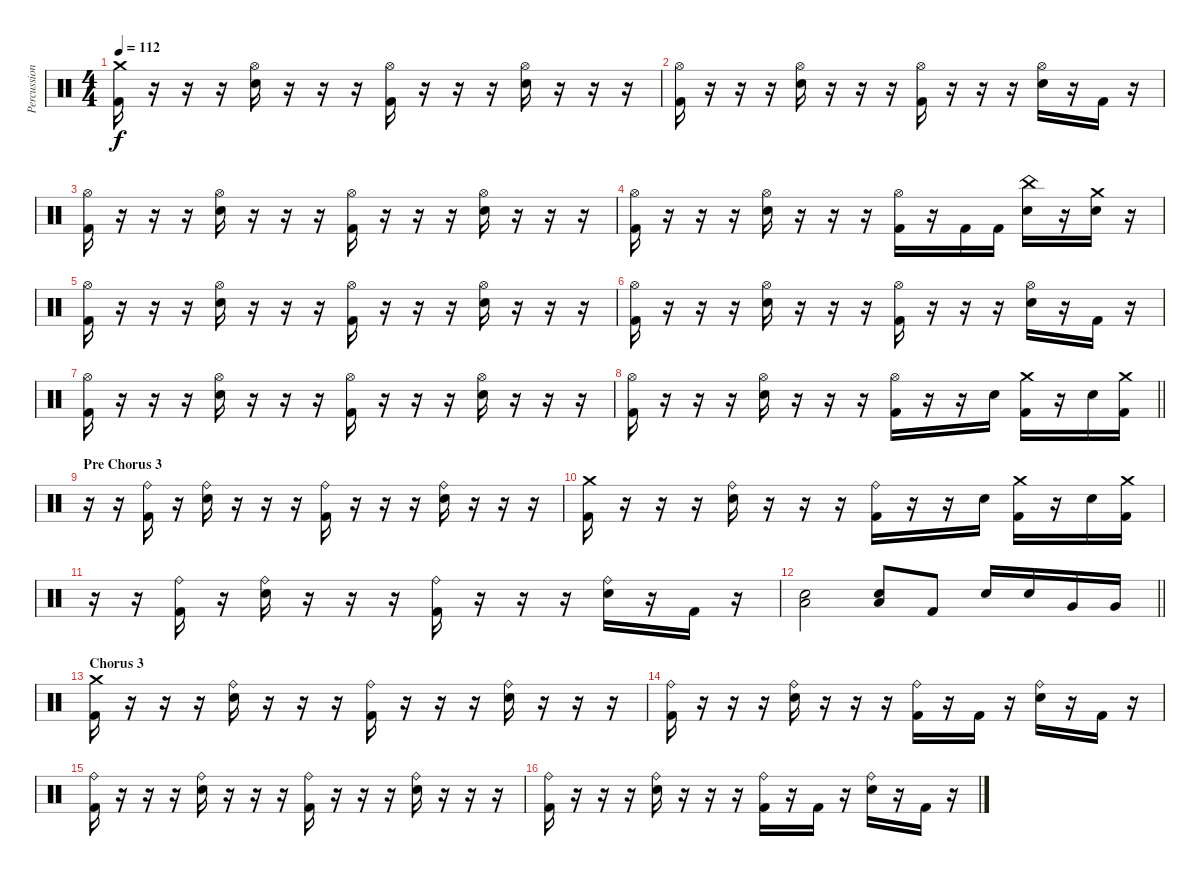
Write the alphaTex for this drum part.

\track ("Percussioni" "Percussion") {instrument percussion}
\staff {score}
\articulation defaults
\ts (4 4)
\tempo 112
\clef neutral
\ks c
("Kick (hit) 2" "Crash medium (hit)").16{dy f} r.16 r.16 r.16 ("Snare (hit) 2" "Hi-Hat (open)").16 r.16 r.16 r.16 ("Kick (hit) 2" "Hi-Hat (open)").16 r.16 r.16 r.16 ("Snare (hit) 2" "Hi-Hat (open)").16 r.16 r.16 r.16 |
("Kick (hit) 2" "Hi-Hat (open)").16 r.16 r.16 r.16 ("Snare (hit) 2" "Hi-Hat (open)").16 r.16 r.16 r.16 ("Kick (hit) 2" "Hi-Hat (open)").16 r.16 r.16 r.16 ("Snare (hit) 2" "Hi-Hat (open)").16 r.16 "Kick (hit) 2".16 r.16 |
("Kick (hit) 2" "Hi-Hat (open)").16 r.16 r.16 r.16 ("Snare (hit) 2" "Hi-Hat (open)").16 r.16 r.16 r.16 ("Kick (hit) 2" "Hi-Hat (open)").16 r.16 r.16 r.16 ("Snare (hit) 2" "Hi-Hat (open)").16 r.16 r.16 r.16 |
("Kick (hit) 2" "Hi-Hat (open)").16 r.16 r.16 r.16 ("Snare (hit) 2" "Hi-Hat (open)").16 r.16 r.16 r.16 ("Kick (hit) 2" "Hi-Hat (open)").16 r.16 "Kick (hit) 2".16 "Kick (hit) 2".16 ("Snare (hit) 2" "China (hit)").16 r.16 ("Snare (hit) 2" "Crash medium (hit)").16 r.16 |
("Kick (hit) 2" "Hi-Hat (open)").16 r.16 r.16 r.16 ("Snare (hit) 2" "Hi-Hat (open)").16 r.16 r.16 r.16 ("Kick (hit) 2" "Hi-Hat (open)").16 r.16 r.16 r.16 ("Snare (hit) 2" "Hi-Hat (open)").16 r.16 r.16 r.16 |
("Kick (hit) 2" "Hi-Hat (open)").16 r.16 r.16 r.16 ("Snare (hit) 2" "Hi-Hat (open)").16 r.16 r.16 r.16 ("Kick (hit) 2" "Hi-Hat (open)").16 r.16 r.16 r.16 ("Snare (hit) 2" "Hi-Hat (open)").16 r.16 "Kick (hit) 2".16 r.16 |
("Kick (hit) 2" "Hi-Hat (open)").16 r.16 r.16 r.16 ("Snare (hit) 2" "Hi-Hat (open)").16 r.16 r.16 r.16 ("Kick (hit) 2" "Hi-Hat (open)").16 r.16 r.16 r.16 ("Snare (hit) 2" "Hi-Hat (open)").16 r.16 r.16 r.16 |
\barLineRight lightlight
("Kick (hit) 2" "Hi-Hat (open)").16 r.16 r.16 r.16 ("Snare (hit) 2" "Hi-Hat (open)").16 r.16 r.16 r.16 ("Kick (hit) 2" "Hi-Hat (open)").16 r.16 r.16 "Snare (hit) 2".16 ("Kick (hit) 2" "Crash medium (hit)").16 r.16 "Snare (hit) 2".16 ("Kick (hit) 2" "Crash medium (hit)").16 |
\section ("" "Pre Chorus 3")
r.16 r.16 ("Kick (hit) 2" "Ride (bell)").16 r.16 ("Snare (hit) 2" "Ride (bell)").16 r.16 r.16 r.16 ("Kick (hit) 2" "Ride (bell)").16 r.16 r.16 r.16 ("Snare (hit) 2" "Ride (bell)").16 r.16 r.16 r.16 |
("Kick (hit) 2" "Crash medium (hit)").16 r.16 r.16 r.16 ("Snare (hit) 2" "Ride (bell)").16 r.16 r.16 r.16 ("Kick (hit) 2" "Ride (bell)").16 r.16 r.16 "Snare (hit) 2".16 ("Kick (hit) 2" "Crash medium (hit)").16 r.16 "Snare (hit) 2".16 ("Kick (hit) 2" "Crash medium (hit)").16 |
r.16 r.16 ("Kick (hit) 2" "Ride (bell)").16 r.16 ("Snare (hit) 2" "Ride (bell)").16 r.16 r.16 r.16 ("Kick (hit) 2" "Ride (bell)").16 r.16 r.16 r.16 ("Snare (hit) 2" "Ride (bell)").16 r.16 "Kick (hit) 2".16 r.16 |
\barLineRight lightlight
("Low Floor Tom (hit)" "Snare (hit) 2").2 ("Low Floor Tom (hit)" "Snare (hit) 2").8 "Kick (hit) 2".8 "Snare (hit) 2".16 "Snare (hit) 2".16 "Very Low Tom (hit)".16 "Very Low Tom (hit)".16 |
\section ("" "Chorus 3")
("Kick (hit) 2" "Crash medium (hit)").16 r.16 r.16 r.16 ("Snare (hit) 2" "Ride (bell)").16 r.16 r.16 r.16 ("Kick (hit) 2" "Ride (bell)").16 r.16 r.16 r.16 ("Snare (hit) 2" "Ride (bell)").16 r.16 r.16 r.16 |
("Kick (hit) 2" "Ride (bell)").16 r.16 r.16 r.16 ("Snare (hit) 2" "Ride (bell)").16 r.16 r.16 r.16 ("Kick (hit) 2" "Ride (bell)").16 r.16 "Kick (hit) 2".16 r.16 ("Snare (hit) 2" "Ride (bell)").16 r.16 "Kick (hit) 2".16 r.16 |
("Kick (hit) 2" "Ride (bell)").16 r.16 r.16 r.16 ("Snare (hit) 2" "Ride (bell)").16 r.16 r.16 r.16 ("Kick (hit) 2" "Ride (bell)").16 r.16 r.16 r.16 ("Snare (hit) 2" "Ride (bell)").16 r.16 r.16 r.16 |
("Kick (hit) 2" "Ride (bell)").16 r.16 r.16 r.16 ("Snare (hit) 2" "Ride (bell)").16 r.16 r.16 r.16 ("Kick (hit) 2" "Ride (bell)").16 r.16 "Kick (hit) 2".16 r.16 ("Snare (hit) 2" "Ride (bell)").16 r.16 "Kick (hit) 2".16 r.16
